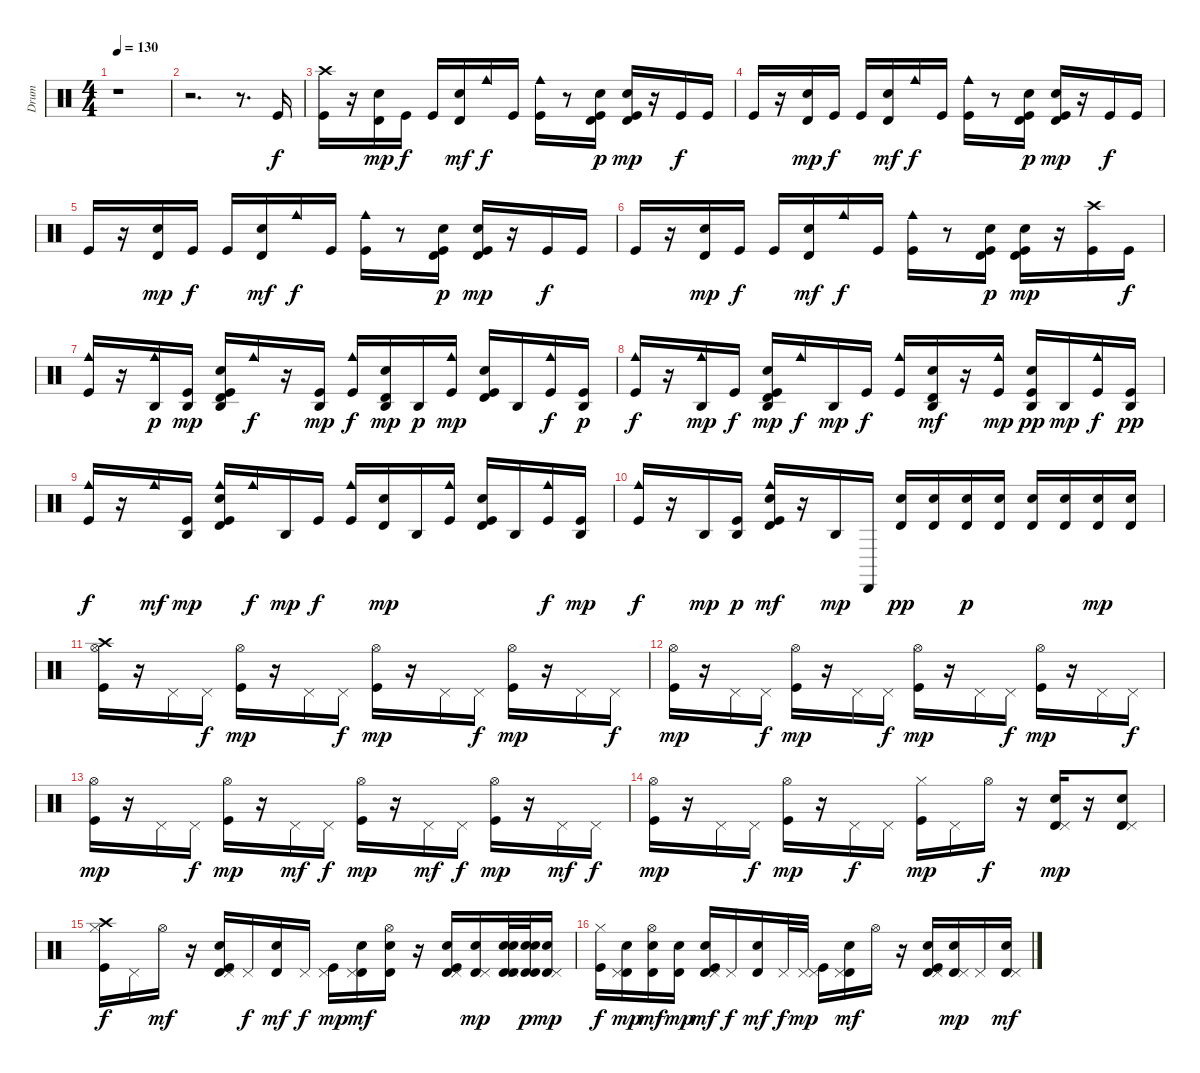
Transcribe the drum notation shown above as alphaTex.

\track ("Drum" "Drum") {instrument percussion}
\staff {score}
\articulation defaults
\ts (4 4)
\tempo 130
\clef neutral
\ks c
r.1{dy f} |
r.2{d} r.8{d} "Kick (hit)".16 |
("Crash high (hit)" "Kick (hit)").16 r.16 ("Timbale high (hit)" "Electric Snare (hit)").16{dy mp} "Kick (hit)".16{dy f} "Kick (hit)".16 ("Timbale high (hit)" "Electric Snare (hit)").16{dy mf} "Cowbell medium (hit)".16{dy f} "Kick (hit)".16 ("Cowbell medium (hit)" "Kick (hit)").16 r.8 ("Electric Snare (hit)" "Timbale high (hit)" "Kick (hit)").16{dy p} ("Electric Snare (hit)" "Timbale high (hit)" "Kick (hit)").16{dy mp} r.16 "Kick (hit)".16{dy f} "Kick (hit)".16 |
"Kick (hit)".16 r.16 ("Timbale high (hit)" "Electric Snare (hit)").16{dy mp} "Kick (hit)".16{dy f} "Kick (hit)".16 ("Timbale high (hit)" "Electric Snare (hit)").16{dy mf} "Cowbell medium (hit)".16{dy f} "Kick (hit)".16 ("Cowbell medium (hit)" "Kick (hit)").16 r.8 ("Electric Snare (hit)" "Timbale high (hit)" "Kick (hit)").16{dy p} ("Electric Snare (hit)" "Timbale high (hit)" "Kick (hit)").16{dy mp} r.16 "Kick (hit)".16{dy f} "Kick (hit)".16 |
"Kick (hit)".16 r.16 ("Timbale high (hit)" "Electric Snare (hit)").16{dy mp} "Kick (hit)".16{dy f} "Kick (hit)".16 ("Timbale high (hit)" "Electric Snare (hit)").16{dy mf} "Cowbell medium (hit)".16{dy f} "Kick (hit)".16 ("Cowbell medium (hit)" "Kick (hit)").16 r.8 ("Electric Snare (hit)" "Timbale high (hit)" "Kick (hit)").16{dy p} ("Electric Snare (hit)" "Timbale high (hit)" "Kick (hit)").16{dy mp} r.16 "Kick (hit)".16{dy f} "Kick (hit)".16 |
"Kick (hit)".16 r.16 ("Timbale high (hit)" "Electric Snare (hit)").16{dy mp} "Kick (hit)".16{dy f} "Kick (hit)".16 ("Timbale high (hit)" "Electric Snare (hit)").16{dy mf} "Cowbell medium (hit)".16{dy f} "Kick (hit)".16 ("Cowbell medium (hit)" "Kick (hit)").16 r.8 ("Electric Snare (hit)" "Timbale high (hit)" "Kick (hit)").16{dy p} ("Electric Snare (hit)" "Timbale high (hit)" "Kick (hit)").16{dy mp} r.16 ("Crash high (hit)" "Kick (hit)").16 "Kick (hit)".16{dy f} |
("Cowbell medium (hit)" "Kick (hit)").16 r.16 ("Cowbell medium (hit)" "Agogo high (hit)").16{dy p} ("Agogo high (hit)" "Kick (hit)").16{dy mp} ("Agogo high (hit)" "Electric Snare (hit)" "Timbale high (hit)" "Kick (hit)").16 "Cowbell medium (hit)".16{dy f} r.16 ("Agogo high (hit)" "Kick (hit)").16{dy mp} ("Cowbell medium (hit)" "Kick (hit)").16{dy f} ("Agogo high (hit)" "Electric Snare (hit)" "Timbale high (hit)").16{dy mp} "Agogo high (hit)".16{dy p} ("Cowbell medium (hit)" "Kick (hit)").16{dy mp} ("Electric Snare (hit)" "Timbale high (hit)" "Kick (hit)").16 "Agogo high (hit)".16 ("Cowbell medium (hit)" "Kick (hit)").16{dy f} ("Agogo high (hit)" "Kick (hit)").16{dy p} |
("Cowbell medium (hit)" "Kick (hit)").16{dy f} r.16 ("Cowbell medium (hit)" "Agogo high (hit)").16{dy mp} "Kick (hit)".16{dy f} ("Agogo high (hit)" "Electric Snare (hit)" "Timbale high (hit)" "Kick (hit)").16{dy mp} "Cowbell medium (hit)".16{dy f} "Agogo high (hit)".16{dy mp} "Kick (hit)".16{dy f} ("Cowbell medium (hit)" "Kick (hit)").16 ("Agogo high (hit)" "Electric Snare (hit)" "Timbale high (hit)").16{dy mf} r.16 ("Cowbell medium (hit)" "Kick (hit)").16{dy mp} ("Agogo high (hit)" "Electric Snare (hit)" "Kick (hit)").16{dy pp} "Agogo high (hit)".16{dy mp} ("Cowbell medium (hit)" "Kick (hit)").16{dy f} ("Agogo high (hit)" "Kick (hit)").16{dy pp} |
("Cowbell medium (hit)" "Kick (hit)").16{dy f} r.16 "Cowbell medium (hit)".16{dy mf} ("Agogo high (hit)" "Kick (hit)").16{dy mp} ("Cowbell medium (hit)" "Electric Snare (hit)" "Timbale high (hit)" "Kick (hit)").16 "Cowbell medium (hit)".16{dy f} "Agogo high (hit)".16{dy mp} "Kick (hit)".16{dy f} ("Cowbell medium (hit)" "Kick (hit)").16 ("Electric Snare (hit)" "Timbale high (hit)").16{dy mp} "Agogo high (hit)".16 ("Cowbell medium (hit)" "Kick (hit)").16 ("Electric Snare (hit)" "Timbale high (hit)" "Kick (hit)").16 "Agogo high (hit)".16 ("Cowbell medium (hit)" "Kick (hit)").16{dy f} ("Agogo high (hit)" "Kick (hit)").16{dy mp} |
("Cowbell medium (hit)" "Kick (hit)").16{dy f} r.16 "Agogo high (hit)".16{dy mp} ("Agogo high (hit)" "Kick (hit)").16{dy p} ("Cowbell medium (hit)" "Timbale high (hit)" "Electric Snare (hit)" "Kick (hit)").16{dy mf} r.16 "Agogo high (hit)".16{dy mp} "Cabasa (hit)".16 ("Timbale high (hit)" "Electric Snare (hit)").16{dy pp} ("Timbale high (hit)" "Electric Snare (hit)").16 ("Timbale high (hit)" "Electric Snare (hit)").16{dy p} ("Timbale high (hit)" "Electric Snare (hit)").16 ("Timbale high (hit)" "Electric Snare (hit)").16 ("Timbale high (hit)" "Electric Snare (hit)").16 ("Timbale high (hit)" "Electric Snare (hit)").16{dy mp} ("Timbale high (hit)" "Electric Snare (hit)").16 |
("Crash high (hit)" "Hi-Hat (open)" "Kick (hit)").16 r.16 "Pedal Hi-Hat (hit)".16 "Pedal Hi-Hat (hit)".16{dy f} ("Hi-Hat (open)" "Kick (hit)").16{dy mp} r.16 "Pedal Hi-Hat (hit)".16 "Pedal Hi-Hat (hit)".16{dy f} ("Hi-Hat (open)" "Kick (hit)").16{dy mp} r.16 "Pedal Hi-Hat (hit)".16 "Pedal Hi-Hat (hit)".16{dy f} ("Hi-Hat (open)" "Kick (hit)").16{dy mp} r.16 "Pedal Hi-Hat (hit)".16 "Pedal Hi-Hat (hit)".16{dy f} |
("Hi-Hat (open)" "Kick (hit)").16{dy mp} r.16 "Pedal Hi-Hat (hit)".16 "Pedal Hi-Hat (hit)".16{dy f} ("Hi-Hat (open)" "Kick (hit)").16{dy mp} r.16 "Pedal Hi-Hat (hit)".16 "Pedal Hi-Hat (hit)".16{dy f} ("Hi-Hat (open)" "Kick (hit)").16{dy mp} r.16 "Pedal Hi-Hat (hit)".16 "Pedal Hi-Hat (hit)".16{dy f} ("Hi-Hat (open)" "Kick (hit)").16{dy mp} r.16 "Pedal Hi-Hat (hit)".16 "Pedal Hi-Hat (hit)".16{dy f} |
("Hi-Hat (open)" "Kick (hit)").16{dy mp} r.16 "Pedal Hi-Hat (hit)".16 "Pedal Hi-Hat (hit)".16{dy f} ("Hi-Hat (open)" "Kick (hit)").16{dy mp} r.16 "Pedal Hi-Hat (hit)".16{dy mf} "Pedal Hi-Hat (hit)".16{dy f} ("Hi-Hat (open)" "Kick (hit)").16{dy mp} r.16 "Pedal Hi-Hat (hit)".16{dy mf} "Pedal Hi-Hat (hit)".16{dy f} ("Hi-Hat (open)" "Kick (hit)").16{dy mp} r.16 "Pedal Hi-Hat (hit)".16{dy mf} "Pedal Hi-Hat (hit)".16{dy f} |
("Hi-Hat (open)" "Kick (hit)").16{dy mp} r.16 "Pedal Hi-Hat (hit)".16 "Pedal Hi-Hat (hit)".16{dy f} ("Hi-Hat (open)" "Kick (hit)").16{dy mp} r.16 "Pedal Hi-Hat (hit)".16{dy f} "Pedal Hi-Hat (hit)".16 ("Hi-Hat (closed)" "Kick (hit)").16{dy mp} "Pedal Hi-Hat (hit)".16 "Hi-Hat (open)".16{dy f} r.16 ("Timbale high (hit)" "Pedal Hi-Hat (hit)" "Electric Snare (hit)").16{dy mp} r.16 ("Timbale high (hit)" "Pedal Hi-Hat (hit)" "Electric Snare (hit)").8 |
("Crash high (hit)" "Hi-Hat (closed)" "Kick (hit)").16{dy f} "Pedal Hi-Hat (hit)".16 "Hi-Hat (open)".16{dy mf} r.16 ("Timbale high (hit)" "Electric Snare (hit)" "Pedal Hi-Hat (hit)" "Kick (hit)").16 "Pedal Hi-Hat (hit)".16{dy f} ("Timbale high (hit)" "Electric Snare (hit)").16{dy mf} "Pedal Hi-Hat (hit)".16{dy f} ("Pedal Hi-Hat (hit)" "Kick (hit)").16{dy mp} ("Timbale high (hit)" "Electric Snare (hit)" "Pedal Hi-Hat (hit)").16{dy mf} ("Timbale high (hit)" "Electric Snare (hit)" "Hi-Hat (open)").16 r.16 ("Timbale high (hit)" "Electric Snare (hit)" "Pedal Hi-Hat (hit)" "Kick (hit)").16 ("Timbale high (hit)" "Electric Snare (hit)" "Pedal Hi-Hat (hit)").16{dy mp} ("Timbale high (hit)" "Electric Snare (hit)" "Pedal Hi-Hat (hit)" "Timbale high (hit)" "Electric Snare (hit)").32 ("Timbale high (hit)" "Electric Snare (hit)" "Timbale high (hit)" "Electric Snare (hit)").32{dy p} ("Timbale high (hit)" "Electric Snare (hit)" "Pedal Hi-Hat (hit)").16{dy mp} |
("Hi-Hat (closed)" "Kick (hit)").16{dy f} ("Timbale high (hit)" "Electric Snare (hit)" "Pedal Hi-Hat (hit)").16{dy mp} ("Timbale high (hit)" "Electric Snare (hit)" "Hi-Hat (open)").16{dy mf} ("Timbale high (hit)" "Electric Snare (hit)").16{dy mp} ("Timbale high (hit)" "Electric Snare (hit)" "Pedal Hi-Hat (hit)" "Kick (hit)").16{dy mf} "Pedal Hi-Hat (hit)".16{dy f} ("Timbale high (hit)" "Electric Snare (hit)").16{dy mf} "Pedal Hi-Hat (hit)".32{dy f} "Pedal Hi-Hat (hit)".32{dy mp} ("Pedal Hi-Hat (hit)" "Kick (hit)").16 ("Timbale high (hit)" "Electric Snare (hit)" "Pedal Hi-Hat (hit)").16{dy mf} "Hi-Hat (open)".16 r.16 ("Timbale high (hit)" "Electric Snare (hit)" "Pedal Hi-Hat (hit)" "Kick (hit)").16 ("Timbale high (hit)" "Electric Snare (hit)" "Pedal Hi-Hat (hit)").16{dy mp} "Pedal Hi-Hat (hit)".16 ("Timbale high (hit)" "Electric Snare (hit)" "Pedal Hi-Hat (hit)").16{dy mf}
